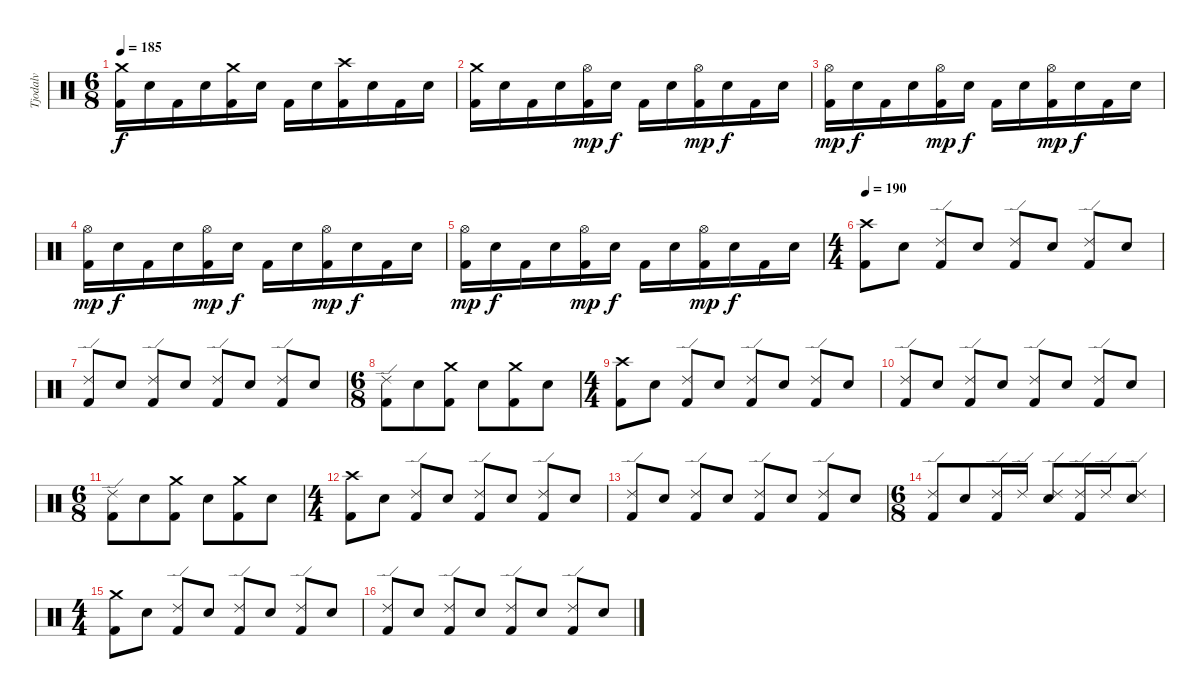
\track ("Tjodalv" "Tjodalv") {instrument percussion}
\staff {score}
\articulation defaults
\ts (6 8)
\tempo 185
\clef neutral
\ks c
("Crash medium (hit)" "Kick (hit) 2").16{dy f} "Electric Snare (hit)".16 "Kick (hit) 2".16 "Electric Snare (hit)".16 ("Crash medium (hit)" "Kick (hit) 2").16 "Electric Snare (hit)".16 "Kick (hit) 2".16 "Electric Snare (hit)".16 ("Crash high (hit)" "Kick (hit) 2").16 "Electric Snare (hit)".16 "Kick (hit) 2".16 "Electric Snare (hit)".16 |
("Crash medium (hit)" "Kick (hit) 2").16 "Electric Snare (hit)".16 "Kick (hit) 2".16 "Electric Snare (hit)".16 ("Hi-Hat (open)" "Kick (hit) 2").16{dy mp} "Electric Snare (hit)".16{dy f} "Kick (hit) 2".16 "Electric Snare (hit)".16 ("Hi-Hat (open)" "Kick (hit) 2").16{dy mp} "Electric Snare (hit)".16{dy f} "Kick (hit) 2".16 "Electric Snare (hit)".16 |
("Hi-Hat (open)" "Kick (hit) 2").16{dy mp} "Electric Snare (hit)".16{dy f} "Kick (hit) 2".16 "Electric Snare (hit)".16 ("Hi-Hat (open)" "Kick (hit) 2").16{dy mp} "Electric Snare (hit)".16{dy f} "Kick (hit) 2".16 "Electric Snare (hit)".16 ("Hi-Hat (open)" "Kick (hit) 2").16{dy mp} "Electric Snare (hit)".16{dy f} "Kick (hit) 2".16 "Electric Snare (hit)".16 |
("Hi-Hat (open)" "Kick (hit) 2").16{dy mp} "Electric Snare (hit)".16{dy f} "Kick (hit) 2".16 "Electric Snare (hit)".16 ("Hi-Hat (open)" "Kick (hit) 2").16{dy mp} "Electric Snare (hit)".16{dy f} "Kick (hit) 2".16 "Electric Snare (hit)".16 ("Hi-Hat (open)" "Kick (hit) 2").16{dy mp} "Electric Snare (hit)".16{dy f} "Kick (hit) 2".16 "Electric Snare (hit)".16 |
("Hi-Hat (open)" "Kick (hit) 2").16{dy mp} "Electric Snare (hit)".16{dy f} "Kick (hit) 2".16 "Electric Snare (hit)".16 ("Hi-Hat (open)" "Kick (hit) 2").16{dy mp} "Electric Snare (hit)".16{dy f} "Kick (hit) 2".16 "Electric Snare (hit)".16 ("Hi-Hat (open)" "Kick (hit) 2").16{dy mp} "Electric Snare (hit)".16{dy f} "Kick (hit) 2".16 "Electric Snare (hit)".16 |
\ts (4 4)
\tempo 190
("Crash high (hit)" "Kick (hit) 2").8 "Electric Snare (hit)".8 ("Ride (edge) 2" "Kick (hit) 2").8 "Electric Snare (hit)".8 ("Ride (edge) 2" "Kick (hit) 2").8 "Electric Snare (hit)".8 ("Ride (edge) 2" "Kick (hit) 2").8 "Electric Snare (hit)".8 |
("Ride (edge) 2" "Kick (hit) 2").8 "Electric Snare (hit)".8 ("Ride (edge) 2" "Kick (hit) 2").8 "Electric Snare (hit)".8 ("Ride (edge) 2" "Kick (hit) 2").8 "Electric Snare (hit)".8 ("Ride (edge) 2" "Kick (hit) 2").8 "Electric Snare (hit)".8 |
\ts (6 8)
("Ride (edge) 2" "Kick (hit) 2").8 "Electric Snare (hit)".8 ("Crash medium (hit)" "Kick (hit) 2").8 "Electric Snare (hit)".8 ("Crash medium (hit)" "Kick (hit) 2").8 "Electric Snare (hit)".8 |
\ts (4 4)
("Crash high (hit)" "Kick (hit) 2").8 "Electric Snare (hit)".8 ("Ride (edge) 2" "Kick (hit) 2").8 "Electric Snare (hit)".8 ("Ride (edge) 2" "Kick (hit) 2").8 "Electric Snare (hit)".8 ("Ride (edge) 2" "Kick (hit) 2").8 "Electric Snare (hit)".8 |
("Ride (edge) 2" "Kick (hit) 2").8 "Electric Snare (hit)".8 ("Ride (edge) 2" "Kick (hit) 2").8 "Electric Snare (hit)".8 ("Ride (edge) 2" "Kick (hit) 2").8 "Electric Snare (hit)".8 ("Ride (edge) 2" "Kick (hit) 2").8 "Electric Snare (hit)".8 |
\ts (6 8)
("Ride (edge) 2" "Kick (hit) 2").8 "Electric Snare (hit)".8 ("Crash medium (hit)" "Kick (hit) 2").8 "Electric Snare (hit)".8 ("Crash medium (hit)" "Kick (hit) 2").8 "Electric Snare (hit)".8 |
\ts (4 4)
("Crash high (hit)" "Kick (hit) 2").8 "Electric Snare (hit)".8 ("Ride (edge) 2" "Kick (hit) 2").8 "Electric Snare (hit)".8 ("Ride (edge) 2" "Kick (hit) 2").8 "Electric Snare (hit)".8 ("Ride (edge) 2" "Kick (hit) 2").8 "Electric Snare (hit)".8 |
("Ride (edge) 2" "Kick (hit) 2").8 "Electric Snare (hit)".8 ("Ride (edge) 2" "Kick (hit) 2").8 "Electric Snare (hit)".8 ("Ride (edge) 2" "Kick (hit) 2").8 "Electric Snare (hit)".8 ("Ride (edge) 2" "Kick (hit) 2").8 "Electric Snare (hit)".8 |
\ts (6 8)
("Ride (edge) 2" "Kick (hit) 2").8 "Electric Snare (hit)".8 ("Ride (edge) 2" "Kick (hit) 2").16 "Ride (edge) 2".16 ("Ride (edge) 2" "Electric Snare (hit)").8 ("Ride (edge) 2" "Kick (hit) 2").16 "Ride (edge) 2".16 ("Ride (edge) 2" "Electric Snare (hit)").8 |
\ts (4 4)
("Crash medium (hit)" "Kick (hit) 2").8 "Electric Snare (hit)".8 ("Ride (edge) 2" "Kick (hit) 2").8 "Electric Snare (hit)".8 ("Ride (edge) 2" "Kick (hit) 2").8 "Electric Snare (hit)".8 ("Ride (edge) 2" "Kick (hit) 2").8 "Electric Snare (hit)".8 |
("Ride (edge) 2" "Kick (hit) 2").8 "Electric Snare (hit)".8 ("Ride (edge) 2" "Kick (hit) 2").8 "Electric Snare (hit)".8 ("Ride (edge) 2" "Kick (hit) 2").8 "Electric Snare (hit)".8 ("Ride (edge) 2" "Kick (hit) 2").8 "Electric Snare (hit)".8
